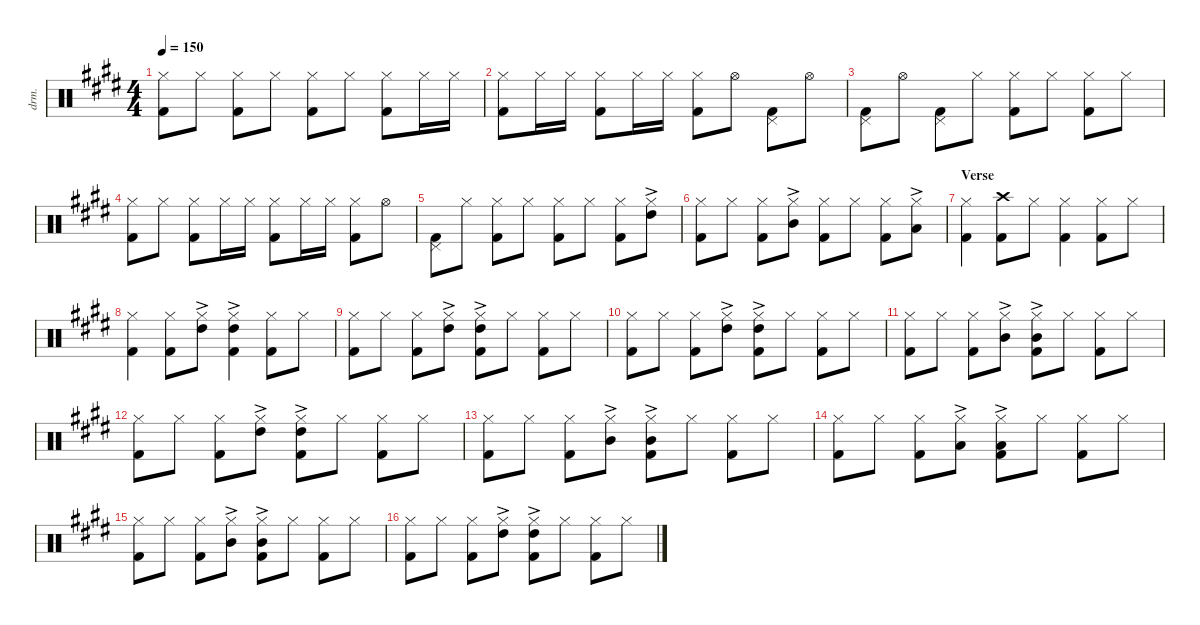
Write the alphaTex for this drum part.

\defaultSystemsLayout 4
\hideDynamics
\bracketExtendMode nobrackets
\otherSystemsTrackNameOrientation horizontal
\track ("Drums - S. Copeland" "drm.") {instrument percussion}
\staff {score}
\articulation defaults
\ts (4 4)
\tempo 150
\clef neutral
\ks c#minor
("Hi-Hat (closed)"{acc forcenatural} "Kick (hit) 2"{acc forcenatural}).8{dy mf beam Down} "Hi-Hat (closed)"{acc forcenatural}.8{beam Down} ("Hi-Hat (closed)"{acc forcenatural} "Kick (hit) 2"{acc forcenatural}).8{beam Down} "Hi-Hat (closed)"{acc forcenatural}.8{beam Down} ("Hi-Hat (closed)"{acc forcenatural} "Kick (hit) 2"{acc forcenatural}).8{beam Down} "Hi-Hat (closed)"{acc forcenatural}.8{beam Down} ("Hi-Hat (closed)"{acc forcenatural} "Kick (hit) 2"{acc forcenatural}).8{beam Down} "Hi-Hat (closed)"{acc forcenatural}.16{beam Down} "Hi-Hat (closed)"{acc forcenatural}.16{beam Down} |
("Hi-Hat (closed)"{acc forcenatural} "Kick (hit) 2"{acc forcenatural}).8{beam Down} "Hi-Hat (closed)"{acc forcenatural}.16{beam Down} "Hi-Hat (closed)"{acc forcenatural}.16{beam Down} ("Hi-Hat (closed)"{acc forcenatural} "Kick (hit) 2"{acc forcenatural}).8{beam Down} "Hi-Hat (closed)"{acc forcenatural}.16{beam Down} "Hi-Hat (closed)"{acc forcenatural}.16{beam Down} ("Hi-Hat (closed)"{acc forcenatural} "Kick (hit) 2"{acc forcenatural}).8{beam Down} "Hi-Hat (open)"{acc forcenatural}.8{beam Down} ("Pedal Hi-Hat (hit)"{acc forcenatural} "Kick (hit) 2"{acc forcenatural}).8{beam Down} "Hi-Hat (open)"{acc forcenatural}.8{beam Down} |
("Pedal Hi-Hat (hit)"{acc forcenatural} "Kick (hit) 2"{acc forcenatural}).8{beam Down} "Hi-Hat (open)"{acc forcenatural}.8{beam Down} ("Pedal Hi-Hat (hit)"{acc forcenatural} "Kick (hit) 2"{acc forcenatural}).8{beam Down} "Hi-Hat (closed)"{acc forcenatural}.8{beam Down} ("Hi-Hat (closed)"{acc forcenatural} "Kick (hit) 2"{acc forcenatural}).8{beam Down} "Hi-Hat (closed)"{acc forcenatural}.8{beam Down} ("Hi-Hat (closed)"{acc forcenatural} "Kick (hit) 2"{acc forcenatural}).8{beam Down} "Hi-Hat (closed)"{acc forcenatural}.8{beam Down} |
("Hi-Hat (closed)"{acc forcenatural} "Kick (hit) 2"{acc forcenatural}).8{beam Down} "Hi-Hat (closed)"{acc forcenatural}.8{beam Down} ("Hi-Hat (closed)"{acc forcenatural} "Kick (hit) 2"{acc forcenatural}).8{beam Down} "Hi-Hat (closed)"{acc forcenatural}.16{beam Down} "Hi-Hat (closed)"{acc forcenatural}.16{beam Down} ("Hi-Hat (closed)"{acc forcenatural} "Kick (hit) 2"{acc forcenatural}).8{beam Down} "Hi-Hat (closed)"{acc forcenatural}.16{beam Down} "Hi-Hat (closed)"{acc forcenatural}.16{beam Down} ("Hi-Hat (closed)"{acc forcenatural} "Kick (hit) 2"{acc forcenatural}).8{beam Down} "Hi-Hat (open)"{acc forcenatural}.8{beam Down} |
("Pedal Hi-Hat (hit)"{acc forcenatural} "Kick (hit) 2"{acc forcenatural}).8{beam Down} "Hi-Hat (closed)"{acc forcenatural}.8{beam Down} ("Hi-Hat (closed)"{acc forcenatural} "Kick (hit) 2"{acc forcenatural}).8{beam Down} "Hi-Hat (closed)"{acc forcenatural}.8{beam Down} ("Hi-Hat (closed)"{acc forcenatural} "Kick (hit) 2"{acc forcenatural}).8{beam Down} "Hi-Hat (closed)"{acc forcenatural}.8{beam Down} ("Hi-Hat (closed)"{acc forcenatural} "Kick (hit) 2"{acc forcenatural}).8{beam Down} ("Hi-Hat (closed)"{acc forcenatural} "High Tom (hit)"{ac acc forcenatural}).8{beam Down} |
("Hi-Hat (closed)"{acc forcenatural} "Kick (hit) 2"{acc forcenatural}).8{beam Down} "Hi-Hat (closed)"{acc forcenatural}.8{beam Down} ("Hi-Hat (closed)"{acc forcenatural} "Kick (hit) 2"{acc forcenatural}).8{beam Down} ("Hi-Hat (closed)"{acc forcenatural} "Mid Tom (hit)"{ac acc forcenatural}).8{beam Down} ("Hi-Hat (closed)"{acc forcenatural} "Kick (hit) 2"{acc forcenatural}).8{beam Down} "Hi-Hat (closed)"{acc forcenatural}.8{beam Down} ("Hi-Hat (closed)"{acc forcenatural} "Kick (hit) 2"{acc forcenatural}).8{beam Down} ("Hi-Hat (closed)"{acc forcenatural} "Low Tom (hit)"{ac acc forcenatural}).8{beam Down} |
\section ("" "Verse")
("Hi-Hat (closed)"{acc forcenatural} "Kick (hit) 2"{acc forcenatural}).4{beam Down} ("Kick (hit) 2"{acc forcenatural} "Crash high (hit)"{acc forcenatural}).8{beam Down} "Hi-Hat (closed)"{acc forcenatural}.8{beam Down} ("Hi-Hat (closed)"{acc forcenatural} "Kick (hit) 2"{acc forcenatural}).4{beam Down} ("Hi-Hat (closed)"{acc forcenatural} "Kick (hit) 2"{acc forcenatural}).8{beam Down} "Hi-Hat (closed)"{acc forcenatural}.8{beam Down} |
("Hi-Hat (closed)"{acc forcenatural} "Kick (hit) 2"{acc forcenatural}).4{beam Down} ("Hi-Hat (closed)"{acc forcenatural} "Kick (hit) 2"{acc forcenatural}).8{beam Down} ("Hi-Hat (closed)"{acc forcenatural} "High Tom (hit)"{ac acc forcenatural}).8{beam Down} ("Hi-Hat (closed)"{acc forcenatural} "Kick (hit) 2"{acc forcenatural} "High Tom (hit)"{ac acc forcenatural}).4{beam Down} ("Hi-Hat (closed)"{acc forcenatural} "Kick (hit) 2"{acc forcenatural}).8{beam Down} "Hi-Hat (closed)"{acc forcenatural}.8{beam Down} |
("Hi-Hat (closed)"{acc forcenatural} "Kick (hit) 2"{acc forcenatural}).8{beam Down} "Hi-Hat (closed)"{acc forcenatural}.8{beam Down} ("Hi-Hat (closed)"{acc forcenatural} "Kick (hit) 2"{acc forcenatural}).8{beam Down} ("Hi-Hat (closed)"{acc forcenatural} "High Tom (hit)"{ac acc forcenatural}).8{beam Down} ("Hi-Hat (closed)"{acc forcenatural} "Kick (hit) 2"{acc forcenatural} "High Tom (hit)"{ac acc forcenatural}).8{beam Down} "Hi-Hat (closed)"{acc forcenatural}.8{beam Down} ("Hi-Hat (closed)"{acc forcenatural} "Kick (hit) 2"{acc forcenatural}).8{beam Down} "Hi-Hat (closed)"{acc forcenatural}.8{beam Down} |
("Hi-Hat (closed)"{acc forcenatural} "Kick (hit) 2"{acc forcenatural}).8{beam Down} "Hi-Hat (closed)"{acc forcenatural}.8{beam Down} ("Hi-Hat (closed)"{acc forcenatural} "Kick (hit) 2"{acc forcenatural}).8{beam Down} ("Hi-Hat (closed)"{acc forcenatural} "High Tom (hit)"{ac acc forcenatural}).8{beam Down} ("Hi-Hat (closed)"{acc forcenatural} "Kick (hit) 2"{acc forcenatural} "High Tom (hit)"{ac acc forcenatural}).8{beam Down} "Hi-Hat (closed)"{acc forcenatural}.8{beam Down} ("Hi-Hat (closed)"{acc forcenatural} "Kick (hit) 2"{acc forcenatural}).8{beam Down} "Hi-Hat (closed)"{acc forcenatural}.8{beam Down} |
("Hi-Hat (closed)"{acc forcenatural} "Kick (hit) 2"{acc forcenatural}).8{beam Down} "Hi-Hat (closed)"{acc forcenatural}.8{beam Down} ("Hi-Hat (closed)"{acc forcenatural} "Kick (hit) 2"{acc forcenatural}).8{beam Down} ("Hi-Hat (closed)"{acc forcenatural} "Mid Tom (hit)"{ac acc forcenatural}).8{beam Down} ("Hi-Hat (closed)"{acc forcenatural} "Kick (hit) 2"{acc forcenatural} "Mid Tom (hit)"{ac acc forcenatural}).8{beam Down} "Hi-Hat (closed)"{acc forcenatural}.8{beam Down} ("Hi-Hat (closed)"{acc forcenatural} "Kick (hit) 2"{acc forcenatural}).8{beam Down} "Hi-Hat (closed)"{acc forcenatural}.8{beam Down} |
("Hi-Hat (closed)"{acc forcenatural} "Kick (hit) 2"{acc forcenatural}).8{beam Down} "Hi-Hat (closed)"{acc forcenatural}.8{beam Down} ("Hi-Hat (closed)"{acc forcenatural} "Kick (hit) 2"{acc forcenatural}).8{beam Down} ("Hi-Hat (closed)"{acc forcenatural} "High Tom (hit)"{ac acc forcenatural}).8{beam Down} ("Hi-Hat (closed)"{acc forcenatural} "Kick (hit) 2"{acc forcenatural} "High Tom (hit)"{ac acc forcenatural}).8{beam Down} "Hi-Hat (closed)"{acc forcenatural}.8{beam Down} ("Hi-Hat (closed)"{acc forcenatural} "Kick (hit) 2"{acc forcenatural}).8{beam Down} "Hi-Hat (closed)"{acc forcenatural}.8{beam Down} |
("Hi-Hat (closed)"{acc forcenatural} "Kick (hit) 2"{acc forcenatural}).8{beam Down} "Hi-Hat (closed)"{acc forcenatural}.8{beam Down} ("Hi-Hat (closed)"{acc forcenatural} "Kick (hit) 2"{acc forcenatural}).8{beam Down} ("Hi-Hat (closed)"{acc forcenatural} "Mid Tom (hit)"{ac acc forcenatural}).8{beam Down} ("Hi-Hat (closed)"{acc forcenatural} "Kick (hit) 2"{acc forcenatural} "Mid Tom (hit)"{ac acc forcenatural}).8{beam Down} "Hi-Hat (closed)"{acc forcenatural}.8{beam Down} ("Hi-Hat (closed)"{acc forcenatural} "Kick (hit) 2"{acc forcenatural}).8{beam Down} "Hi-Hat (closed)"{acc forcenatural}.8{beam Down} |
("Hi-Hat (closed)"{acc forcenatural} "Kick (hit) 2"{acc forcenatural}).8{beam Down} "Hi-Hat (closed)"{acc forcenatural}.8{beam Down} ("Hi-Hat (closed)"{acc forcenatural} "Kick (hit) 2"{acc forcenatural}).8{beam Down} ("Hi-Hat (closed)"{acc forcenatural} "Low Tom (hit)"{ac acc forcenatural}).8{beam Down} ("Hi-Hat (closed)"{acc forcenatural} "Kick (hit) 2"{acc forcenatural} "Low Tom (hit)"{ac acc forcenatural}).8{beam Down} "Hi-Hat (closed)"{acc forcenatural}.8{beam Down} ("Hi-Hat (closed)"{acc forcenatural} "Kick (hit) 2"{acc forcenatural}).8{beam Down} "Hi-Hat (closed)"{acc forcenatural}.8{beam Down} |
("Hi-Hat (closed)"{acc forcenatural} "Kick (hit) 2"{acc forcenatural}).8{beam Down} "Hi-Hat (closed)"{acc forcenatural}.8{beam Down} ("Hi-Hat (closed)"{acc forcenatural} "Kick (hit) 2"{acc forcenatural}).8{beam Down} ("Hi-Hat (closed)"{acc forcenatural} "Mid Tom (hit)"{ac acc forcenatural}).8{beam Down} ("Hi-Hat (closed)"{acc forcenatural} "Kick (hit) 2"{acc forcenatural} "Mid Tom (hit)"{ac acc forcenatural}).8{beam Down} "Hi-Hat (closed)"{acc forcenatural}.8{beam Down} ("Hi-Hat (closed)"{acc forcenatural} "Kick (hit) 2"{acc forcenatural}).8{beam Down} "Hi-Hat (closed)"{acc forcenatural}.8{beam Down} |
("Hi-Hat (closed)"{acc forcenatural} "Kick (hit) 2"{acc forcenatural}).8{beam Down} "Hi-Hat (closed)"{acc forcenatural}.8{beam Down} ("Hi-Hat (closed)"{acc forcenatural} "Kick (hit) 2"{acc forcenatural}).8{beam Down} ("Hi-Hat (closed)"{acc forcenatural} "High Tom (hit)"{ac acc forcenatural}).8{beam Down} ("Hi-Hat (closed)"{acc forcenatural} "Kick (hit) 2"{acc forcenatural} "High Tom (hit)"{ac acc forcenatural}).8{beam Down} "Hi-Hat (closed)"{acc forcenatural}.8{beam Down} ("Hi-Hat (closed)"{acc forcenatural} "Kick (hit) 2"{acc forcenatural}).8{beam Down} "Hi-Hat (closed)"{acc forcenatural}.8{beam Down}
